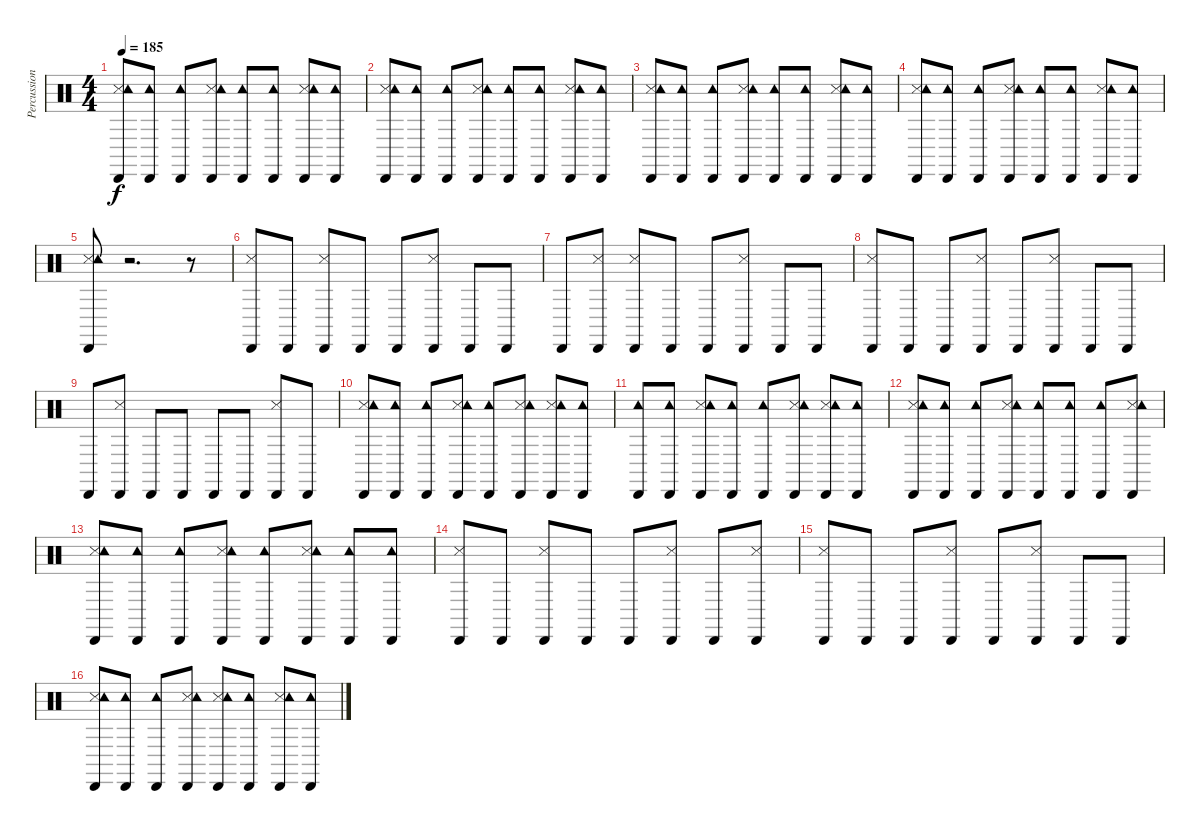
\track ("Percussion" "Percussion") {instrument percussion}
\staff {score}
\articulation defaults
\ts (4 4)
\tempo 185
\clef neutral
\ks c
("Cabasa (hit)" "Snare (side stick) 3" "Tambourine (hit)").8{dy f} ("Cabasa (hit)" "Tambourine (hit)").8 ("Cabasa (hit)" "Tambourine (hit)").8 ("Cabasa (hit)" "Snare (side stick) 3" "Tambourine (hit)").8 ("Cabasa (hit)" "Tambourine (hit)").8 ("Cabasa (hit)" "Tambourine (hit)").8 ("Cabasa (hit)" "Snare (side stick) 3" "Tambourine (hit)").8 ("Cabasa (hit)" "Tambourine (hit)").8 |
("Cabasa (hit)" "Snare (side stick) 3" "Tambourine (hit)").8 ("Cabasa (hit)" "Tambourine (hit)").8 ("Cabasa (hit)" "Tambourine (hit)").8 ("Cabasa (hit)" "Snare (side stick) 3" "Tambourine (hit)").8 ("Cabasa (hit)" "Tambourine (hit)").8 ("Cabasa (hit)" "Tambourine (hit)").8 ("Cabasa (hit)" "Snare (side stick) 3" "Tambourine (hit)").8 ("Cabasa (hit)" "Tambourine (hit)").8 |
("Cabasa (hit)" "Snare (side stick) 3" "Tambourine (hit)").8 ("Cabasa (hit)" "Tambourine (hit)").8 ("Cabasa (hit)" "Tambourine (hit)").8 ("Cabasa (hit)" "Snare (side stick) 3" "Tambourine (hit)").8 ("Cabasa (hit)" "Tambourine (hit)").8 ("Cabasa (hit)" "Tambourine (hit)").8 ("Cabasa (hit)" "Snare (side stick) 3" "Tambourine (hit)").8 ("Cabasa (hit)" "Tambourine (hit)").8 |
("Cabasa (hit)" "Snare (side stick) 3" "Tambourine (hit)").8 ("Cabasa (hit)" "Tambourine (hit)").8 ("Cabasa (hit)" "Tambourine (hit)").8 ("Cabasa (hit)" "Snare (side stick) 3" "Tambourine (hit)").8 ("Cabasa (hit)" "Tambourine (hit)").8 ("Cabasa (hit)" "Tambourine (hit)").8 ("Cabasa (hit)" "Snare (side stick) 3" "Tambourine (hit)").8 ("Cabasa (hit)" "Tambourine (hit)").8 |
("Cabasa (hit)" "Snare (side stick) 3" "Tambourine (hit)").8 r.2{d} r.8 |
("Cabasa (hit)" "Snare (side stick) 3").8 "Cabasa (hit)".8 ("Cabasa (hit)" "Snare (side stick) 3").8 "Cabasa (hit)".8 "Cabasa (hit)".8 ("Cabasa (hit)" "Snare (side stick) 3").8 "Cabasa (hit)".8 "Cabasa (hit)".8 |
"Cabasa (hit)".8 ("Cabasa (hit)" "Snare (side stick) 3").8 ("Cabasa (hit)" "Snare (side stick) 3").8 "Cabasa (hit)".8 "Cabasa (hit)".8 ("Cabasa (hit)" "Snare (side stick) 3").8 "Cabasa (hit)".8 "Cabasa (hit)".8 |
("Cabasa (hit)" "Snare (side stick) 3").8 "Cabasa (hit)".8 "Cabasa (hit)".8 ("Cabasa (hit)" "Snare (side stick) 3").8 "Cabasa (hit)".8 ("Cabasa (hit)" "Snare (side stick) 3").8 "Cabasa (hit)".8 "Cabasa (hit)".8 |
"Cabasa (hit)".8 ("Cabasa (hit)" "Snare (side stick) 3").8 "Cabasa (hit)".8 "Cabasa (hit)".8 "Cabasa (hit)".8 "Cabasa (hit)".8 ("Cabasa (hit)" "Snare (side stick) 3").8 "Cabasa (hit)".8 |
("Cabasa (hit)" "Snare (side stick) 3" "Tambourine (hit)").8 ("Cabasa (hit)" "Tambourine (hit)").8 ("Cabasa (hit)" "Tambourine (hit)").8 ("Cabasa (hit)" "Snare (side stick) 3" "Tambourine (hit)").8 ("Cabasa (hit)" "Tambourine (hit)").8 ("Cabasa (hit)" "Snare (side stick) 3" "Tambourine (hit)").8 ("Cabasa (hit)" "Snare (side stick) 3" "Tambourine (hit)").8 ("Cabasa (hit)" "Tambourine (hit)").8 |
("Cabasa (hit)" "Tambourine (hit)").8 ("Cabasa (hit)" "Tambourine (hit)").8 ("Cabasa (hit)" "Snare (side stick) 3" "Tambourine (hit)").8 ("Cabasa (hit)" "Tambourine (hit)").8 ("Cabasa (hit)" "Tambourine (hit)").8 ("Cabasa (hit)" "Snare (side stick) 3" "Tambourine (hit)").8 ("Cabasa (hit)" "Snare (side stick) 3" "Tambourine (hit)").8 ("Cabasa (hit)" "Tambourine (hit)").8 |
("Cabasa (hit)" "Snare (side stick) 3" "Tambourine (hit)").8 ("Cabasa (hit)" "Tambourine (hit)").8 ("Cabasa (hit)" "Tambourine (hit)").8 ("Cabasa (hit)" "Snare (side stick) 3" "Tambourine (hit)").8 ("Cabasa (hit)" "Tambourine (hit)").8 ("Cabasa (hit)" "Tambourine (hit)").8 ("Cabasa (hit)" "Tambourine (hit)").8 ("Cabasa (hit)" "Snare (side stick) 3" "Tambourine (hit)").8 |
("Cabasa (hit)" "Snare (side stick) 3" "Tambourine (hit)").8 ("Cabasa (hit)" "Tambourine (hit)").8 ("Cabasa (hit)" "Tambourine (hit)").8 ("Cabasa (hit)" "Snare (side stick) 3" "Tambourine (hit)").8 ("Cabasa (hit)" "Tambourine (hit)").8 ("Cabasa (hit)" "Snare (side stick) 3" "Tambourine (hit)").8 ("Cabasa (hit)" "Tambourine (hit)").8 ("Cabasa (hit)" "Tambourine (hit)").8 |
("Cabasa (hit)" "Snare (side stick) 3").8 "Cabasa (hit)".8 ("Cabasa (hit)" "Snare (side stick) 3").8 "Cabasa (hit)".8 "Cabasa (hit)".8 ("Cabasa (hit)" "Snare (side stick) 3").8 "Cabasa (hit)".8 ("Cabasa (hit)" "Snare (side stick) 3").8 |
("Cabasa (hit)" "Snare (side stick) 3").8 "Cabasa (hit)".8 "Cabasa (hit)".8 ("Cabasa (hit)" "Snare (side stick) 3").8 "Cabasa (hit)".8 ("Cabasa (hit)" "Snare (side stick) 3").8 "Cabasa (hit)".8 "Cabasa (hit)".8 |
("Cabasa (hit)" "Snare (side stick) 3" "Tambourine (hit)").8 ("Cabasa (hit)" "Tambourine (hit)").8 ("Cabasa (hit)" "Tambourine (hit)").8 ("Cabasa (hit)" "Snare (side stick) 3" "Tambourine (hit)").8 ("Cabasa (hit)" "Snare (side stick) 3" "Tambourine (hit)").8 ("Cabasa (hit)" "Tambourine (hit)").8 ("Cabasa (hit)" "Snare (side stick) 3" "Tambourine (hit)").8 ("Cabasa (hit)" "Tambourine (hit)").8
